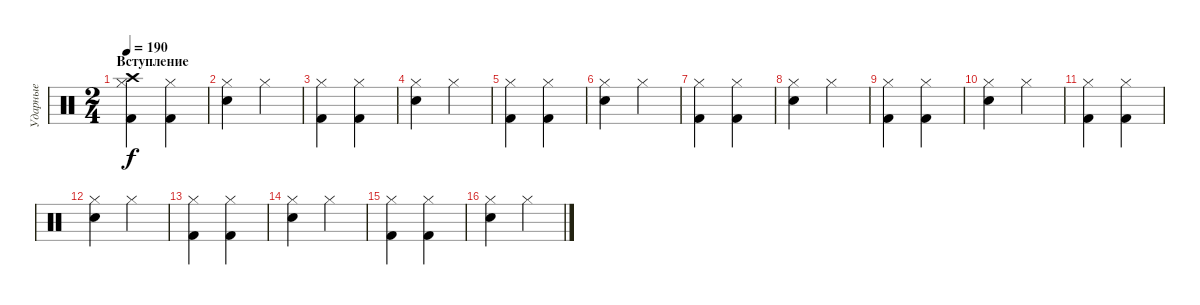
\track ("Ударные" "Ударные") {instrument percussion}
\staff {score}
\articulation defaults
\ts (2 4)
\section ("" "Вступление")
\tempo 190
\clef neutral
\ks c
("Hi-Hat (closed)" "Kick (hit) 2" "Crash high (hit)").4{dy f} ("Hi-Hat (closed)" "Kick (hit) 2").4 |
("Hi-Hat (closed)" "Snare (hit) 2").4 "Hi-Hat (closed)".4 |
("Hi-Hat (closed)" "Kick (hit) 2").4 ("Hi-Hat (closed)" "Kick (hit) 2").4 |
("Hi-Hat (closed)" "Snare (hit) 2").4 "Hi-Hat (closed)".4 |
("Hi-Hat (closed)" "Kick (hit) 2").4 ("Hi-Hat (closed)" "Kick (hit) 2").4 |
("Hi-Hat (closed)" "Snare (hit) 2").4 "Hi-Hat (closed)".4 |
("Hi-Hat (closed)" "Kick (hit) 2").4 ("Hi-Hat (closed)" "Kick (hit) 2").4 |
("Hi-Hat (closed)" "Snare (hit) 2").4 "Hi-Hat (closed)".4 |
("Hi-Hat (closed)" "Kick (hit) 2").4 ("Hi-Hat (closed)" "Kick (hit) 2").4 |
("Hi-Hat (closed)" "Snare (hit) 2").4 "Hi-Hat (closed)".4 |
("Hi-Hat (closed)" "Kick (hit) 2").4 ("Hi-Hat (closed)" "Kick (hit) 2").4 |
("Hi-Hat (closed)" "Snare (hit) 2").4 "Hi-Hat (closed)".4 |
("Hi-Hat (closed)" "Kick (hit) 2").4 ("Hi-Hat (closed)" "Kick (hit) 2").4 |
("Hi-Hat (closed)" "Snare (hit) 2").4 "Hi-Hat (closed)".4 |
("Hi-Hat (closed)" "Kick (hit) 2").4 ("Hi-Hat (closed)" "Kick (hit) 2").4 |
("Hi-Hat (closed)" "Snare (hit) 2").4 "Hi-Hat (closed)".4
